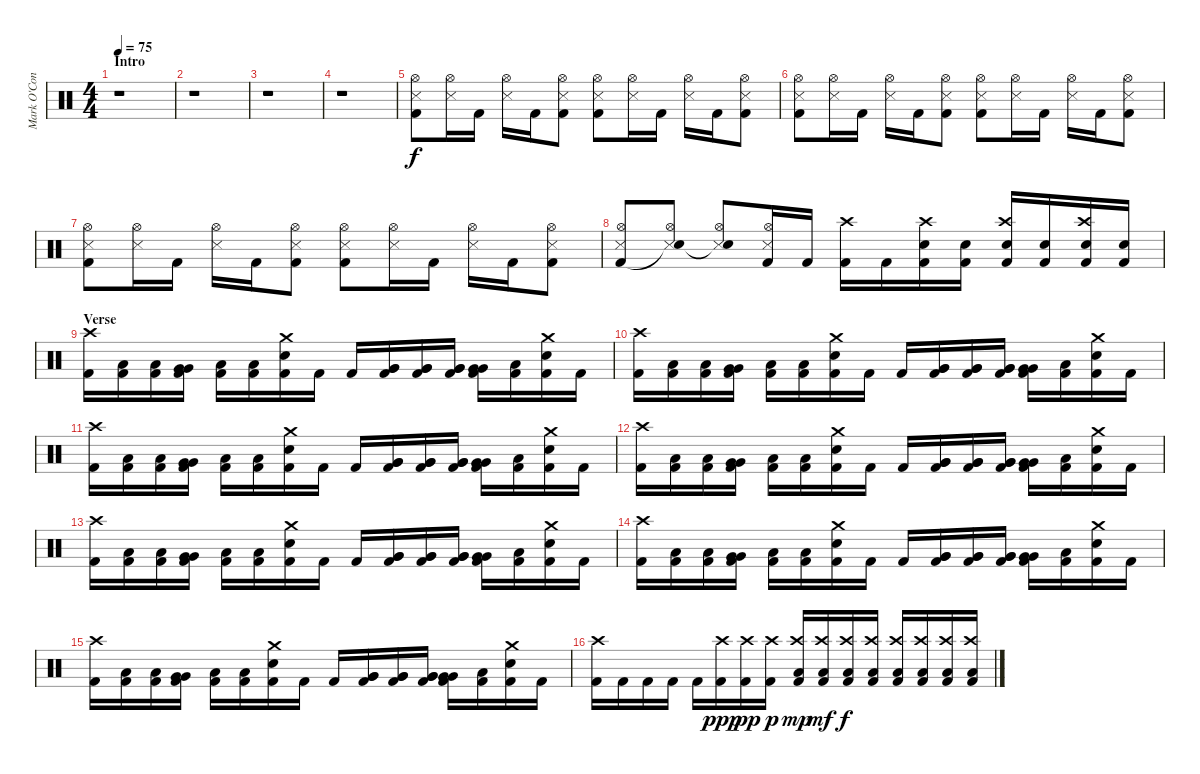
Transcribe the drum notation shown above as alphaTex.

\track ("Mark O'Connell (Drums)" "Mark O'Con") {instrument percussion}
\staff {score}
\articulation defaults
\ts (4 4)
\section ("" "Intro")
\tempo 75
\clef neutral
\ks c
r.1{dy f} |
r.1 |
r.1 |
r.1 |
("Snare (side stick) 3" "Hi-Hat (open)" "Kick (hit) 2").8 ("Snare (side stick) 3" "Hi-Hat (open)").16 "Kick (hit) 2".16 ("Snare (side stick) 3" "Hi-Hat (open)").16 "Kick (hit) 2".16 ("Snare (side stick) 3" "Hi-Hat (open)" "Kick (hit) 2").8 ("Snare (side stick) 3" "Hi-Hat (open)" "Kick (hit) 2").8 ("Snare (side stick) 3" "Hi-Hat (open)").16 "Kick (hit) 2".16 ("Snare (side stick) 3" "Hi-Hat (open)").16 "Kick (hit) 2".16 ("Snare (side stick) 3" "Hi-Hat (open)" "Kick (hit) 2").8 |
("Snare (side stick) 3" "Hi-Hat (open)" "Kick (hit) 2").8 ("Snare (side stick) 3" "Hi-Hat (open)").16 "Kick (hit) 2".16 ("Snare (side stick) 3" "Hi-Hat (open)").16 "Kick (hit) 2".16 ("Snare (side stick) 3" "Hi-Hat (open)" "Kick (hit) 2").8 ("Snare (side stick) 3" "Hi-Hat (open)" "Kick (hit) 2").8 ("Snare (side stick) 3" "Hi-Hat (open)").16 "Kick (hit) 2".16 ("Snare (side stick) 3" "Hi-Hat (open)").16 "Kick (hit) 2".16 ("Snare (side stick) 3" "Hi-Hat (open)" "Kick (hit) 2").8 |
("Snare (side stick) 3" "Hi-Hat (open)" "Kick (hit) 2").8 ("Snare (side stick) 3" "Hi-Hat (open)").16 "Kick (hit) 2".16 ("Snare (side stick) 3" "Hi-Hat (open)").16 "Kick (hit) 2".16 ("Snare (side stick) 3" "Hi-Hat (open)" "Kick (hit) 2").8 ("Snare (side stick) 3" "Hi-Hat (open)" "Kick (hit) 2").8 ("Snare (side stick) 3" "Hi-Hat (open)").16 "Kick (hit) 2".16 ("Snare (side stick) 3" "Hi-Hat (open)").16 "Kick (hit) 2".16 ("Snare (side stick) 3" "Hi-Hat (open)" "Kick (hit) 2").8 |
("Snare (side stick) 3" "Hi-Hat (open)" "Kick (hit) 2").8 ("Snare (side stick) 3" "Hi-Hat (open)" "Snare (hit)"{t}).8 ("Snare (side stick) 3" "Hi-Hat (open)" "Snare (hit)"{t}).8 ("Snare (side stick) 3" "Hi-Hat (open)" "Kick (hit) 2").16 "Kick (hit) 2".16 ("Crash high (hit)" "Kick (hit) 2").16 "Kick (hit) 2".16 ("Crash high (hit)" "Electric Snare (hit)" "Kick (hit) 2").16 ("Electric Snare (hit)" "Kick (hit) 2").16 ("Crash high (hit)" "Electric Snare (hit)" "Kick (hit) 2").16 ("Electric Snare (hit)" "Kick (hit) 2").16 ("Crash high (hit)" "Electric Snare (hit)" "Kick (hit) 2").16 ("Electric Snare (hit)" "Kick (hit) 2").16 |
\section ("" "Verse")
("Crash high (hit)" "Kick (hit) 2").16 ("Low Floor Tom (hit)" "Kick (hit) 2").16 ("Low Floor Tom (hit)" "Kick (hit) 2").16 ("Very Low Tom (hit)" "Very Low Tom (hit)" "Kick (hit) 2").16 ("Low Floor Tom (hit)" "Kick (hit) 2").16 ("Low Floor Tom (hit)" "Kick (hit) 2").16 ("Crash medium (hit)" "Electric Snare (hit)" "Kick (hit) 2").16 "Kick (hit) 2".16 "Kick (hit) 2".16 ("Very Low Tom (hit)" "Very Low Tom (hit)" "Kick (hit) 2").16 ("Very Low Tom (hit)" "Very Low Tom (hit)" "Kick (hit) 2").16 ("Very Low Tom (hit)" "Very Low Tom (hit)" "Kick (hit) 2").16 ("Very Low Tom (hit)" "Very Low Tom (hit)" "Kick (hit) 2").16 ("Low Floor Tom (hit)" "Kick (hit) 2").16 ("Crash medium (hit)" "Electric Snare (hit)" "Kick (hit) 2").16 "Kick (hit) 2".16 |
("Crash high (hit)" "Kick (hit) 2").16 ("Low Floor Tom (hit)" "Kick (hit) 2").16 ("Low Floor Tom (hit)" "Kick (hit) 2").16 ("Very Low Tom (hit)" "Very Low Tom (hit)" "Kick (hit) 2").16 ("Low Floor Tom (hit)" "Kick (hit) 2").16 ("Low Floor Tom (hit)" "Kick (hit) 2").16 ("Crash medium (hit)" "Electric Snare (hit)" "Kick (hit) 2").16 "Kick (hit) 2".16 "Kick (hit) 2".16 ("Very Low Tom (hit)" "Very Low Tom (hit)" "Kick (hit) 2").16 ("Very Low Tom (hit)" "Very Low Tom (hit)" "Kick (hit) 2").16 ("Very Low Tom (hit)" "Very Low Tom (hit)" "Kick (hit) 2").16 ("Very Low Tom (hit)" "Very Low Tom (hit)" "Kick (hit) 2").16 ("Low Floor Tom (hit)" "Kick (hit) 2").16 ("Crash medium (hit)" "Electric Snare (hit)" "Kick (hit) 2").16 "Kick (hit) 2".16 |
("Crash high (hit)" "Kick (hit) 2").16 ("Low Floor Tom (hit)" "Kick (hit) 2").16 ("Low Floor Tom (hit)" "Kick (hit) 2").16 ("Very Low Tom (hit)" "Very Low Tom (hit)" "Kick (hit) 2").16 ("Low Floor Tom (hit)" "Kick (hit) 2").16 ("Low Floor Tom (hit)" "Kick (hit) 2").16 ("Crash medium (hit)" "Electric Snare (hit)" "Kick (hit) 2").16 "Kick (hit) 2".16 "Kick (hit) 2".16 ("Very Low Tom (hit)" "Very Low Tom (hit)" "Kick (hit) 2").16 ("Very Low Tom (hit)" "Very Low Tom (hit)" "Kick (hit) 2").16 ("Very Low Tom (hit)" "Very Low Tom (hit)" "Kick (hit) 2").16 ("Very Low Tom (hit)" "Very Low Tom (hit)" "Kick (hit) 2").16 ("Low Floor Tom (hit)" "Kick (hit) 2").16 ("Crash medium (hit)" "Electric Snare (hit)" "Kick (hit) 2").16 "Kick (hit) 2".16 |
("Crash high (hit)" "Kick (hit) 2").16 ("Low Floor Tom (hit)" "Kick (hit) 2").16 ("Low Floor Tom (hit)" "Kick (hit) 2").16 ("Very Low Tom (hit)" "Very Low Tom (hit)" "Kick (hit) 2").16 ("Low Floor Tom (hit)" "Kick (hit) 2").16 ("Low Floor Tom (hit)" "Kick (hit) 2").16 ("Crash medium (hit)" "Electric Snare (hit)" "Kick (hit) 2").16 "Kick (hit) 2".16 "Kick (hit) 2".16 ("Very Low Tom (hit)" "Very Low Tom (hit)" "Kick (hit) 2").16 ("Very Low Tom (hit)" "Very Low Tom (hit)" "Kick (hit) 2").16 ("Very Low Tom (hit)" "Very Low Tom (hit)" "Kick (hit) 2").16 ("Very Low Tom (hit)" "Very Low Tom (hit)" "Kick (hit) 2").16 ("Low Floor Tom (hit)" "Kick (hit) 2").16 ("Crash medium (hit)" "Electric Snare (hit)" "Kick (hit) 2").16 "Kick (hit) 2".16 |
("Crash high (hit)" "Kick (hit) 2").16 ("Low Floor Tom (hit)" "Kick (hit) 2").16 ("Low Floor Tom (hit)" "Kick (hit) 2").16 ("Very Low Tom (hit)" "Very Low Tom (hit)" "Kick (hit) 2").16 ("Low Floor Tom (hit)" "Kick (hit) 2").16 ("Low Floor Tom (hit)" "Kick (hit) 2").16 ("Crash medium (hit)" "Electric Snare (hit)" "Kick (hit) 2").16 "Kick (hit) 2".16 "Kick (hit) 2".16 ("Very Low Tom (hit)" "Very Low Tom (hit)" "Kick (hit) 2").16 ("Very Low Tom (hit)" "Very Low Tom (hit)" "Kick (hit) 2").16 ("Very Low Tom (hit)" "Very Low Tom (hit)" "Kick (hit) 2").16 ("Very Low Tom (hit)" "Very Low Tom (hit)" "Kick (hit) 2").16 ("Low Floor Tom (hit)" "Kick (hit) 2").16 ("Crash medium (hit)" "Electric Snare (hit)" "Kick (hit) 2").16 "Kick (hit) 2".16 |
("Crash high (hit)" "Kick (hit) 2").16 ("Low Floor Tom (hit)" "Kick (hit) 2").16 ("Low Floor Tom (hit)" "Kick (hit) 2").16 ("Very Low Tom (hit)" "Very Low Tom (hit)" "Kick (hit) 2").16 ("Low Floor Tom (hit)" "Kick (hit) 2").16 ("Low Floor Tom (hit)" "Kick (hit) 2").16 ("Crash medium (hit)" "Electric Snare (hit)" "Kick (hit) 2").16 "Kick (hit) 2".16 "Kick (hit) 2".16 ("Very Low Tom (hit)" "Very Low Tom (hit)" "Kick (hit) 2").16 ("Very Low Tom (hit)" "Very Low Tom (hit)" "Kick (hit) 2").16 ("Very Low Tom (hit)" "Very Low Tom (hit)" "Kick (hit) 2").16 ("Very Low Tom (hit)" "Very Low Tom (hit)" "Kick (hit) 2").16 ("Low Floor Tom (hit)" "Kick (hit) 2").16 ("Crash medium (hit)" "Electric Snare (hit)" "Kick (hit) 2").16 "Kick (hit) 2".16 |
("Crash high (hit)" "Kick (hit) 2").16 ("Low Floor Tom (hit)" "Kick (hit) 2").16 ("Low Floor Tom (hit)" "Kick (hit) 2").16 ("Very Low Tom (hit)" "Very Low Tom (hit)" "Kick (hit) 2").16 ("Low Floor Tom (hit)" "Kick (hit) 2").16 ("Low Floor Tom (hit)" "Kick (hit) 2").16 ("Crash medium (hit)" "Electric Snare (hit)" "Kick (hit) 2").16 "Kick (hit) 2".16 "Kick (hit) 2".16 ("Very Low Tom (hit)" "Very Low Tom (hit)" "Kick (hit) 2").16 ("Very Low Tom (hit)" "Very Low Tom (hit)" "Kick (hit) 2").16 ("Very Low Tom (hit)" "Very Low Tom (hit)" "Kick (hit) 2").16 ("Very Low Tom (hit)" "Very Low Tom (hit)" "Kick (hit) 2").16 ("Low Floor Tom (hit)" "Kick (hit) 2").16 ("Crash medium (hit)" "Electric Snare (hit)" "Kick (hit) 2").16 "Kick (hit) 2".16 |
("Crash high (hit)" "Kick (hit) 2").16 "Kick (hit) 2".16 "Kick (hit) 2".16 "Kick (hit) 2".16 "Kick (hit) 2".16 ("Crash high (hit)" "Kick (hit) 2").16{dy ppp} ("Crash high (hit)" "Kick (hit) 2").16{dy pp} ("Crash high (hit)" "Kick (hit) 2").16{dy p} ("Crash high (hit)" "Low Floor Tom (hit)" "Kick (hit) 2").16{dy mp} ("Crash high (hit)" "Low Floor Tom (hit)" "Kick (hit) 2").16{dy mf} ("Crash high (hit)" "Low Floor Tom (hit)" "Kick (hit) 2").16{dy f} ("Crash high (hit)" "Low Floor Tom (hit)" "Kick (hit) 2").16 ("Crash high (hit)" "Low Floor Tom (hit)" "Kick (hit) 2").16 ("Crash high (hit)" "Low Floor Tom (hit)" "Kick (hit) 2").16 ("Crash high (hit)" "Low Floor Tom (hit)" "Kick (hit) 2").16 ("Crash high (hit)" "Low Floor Tom (hit)" "Kick (hit) 2").16
